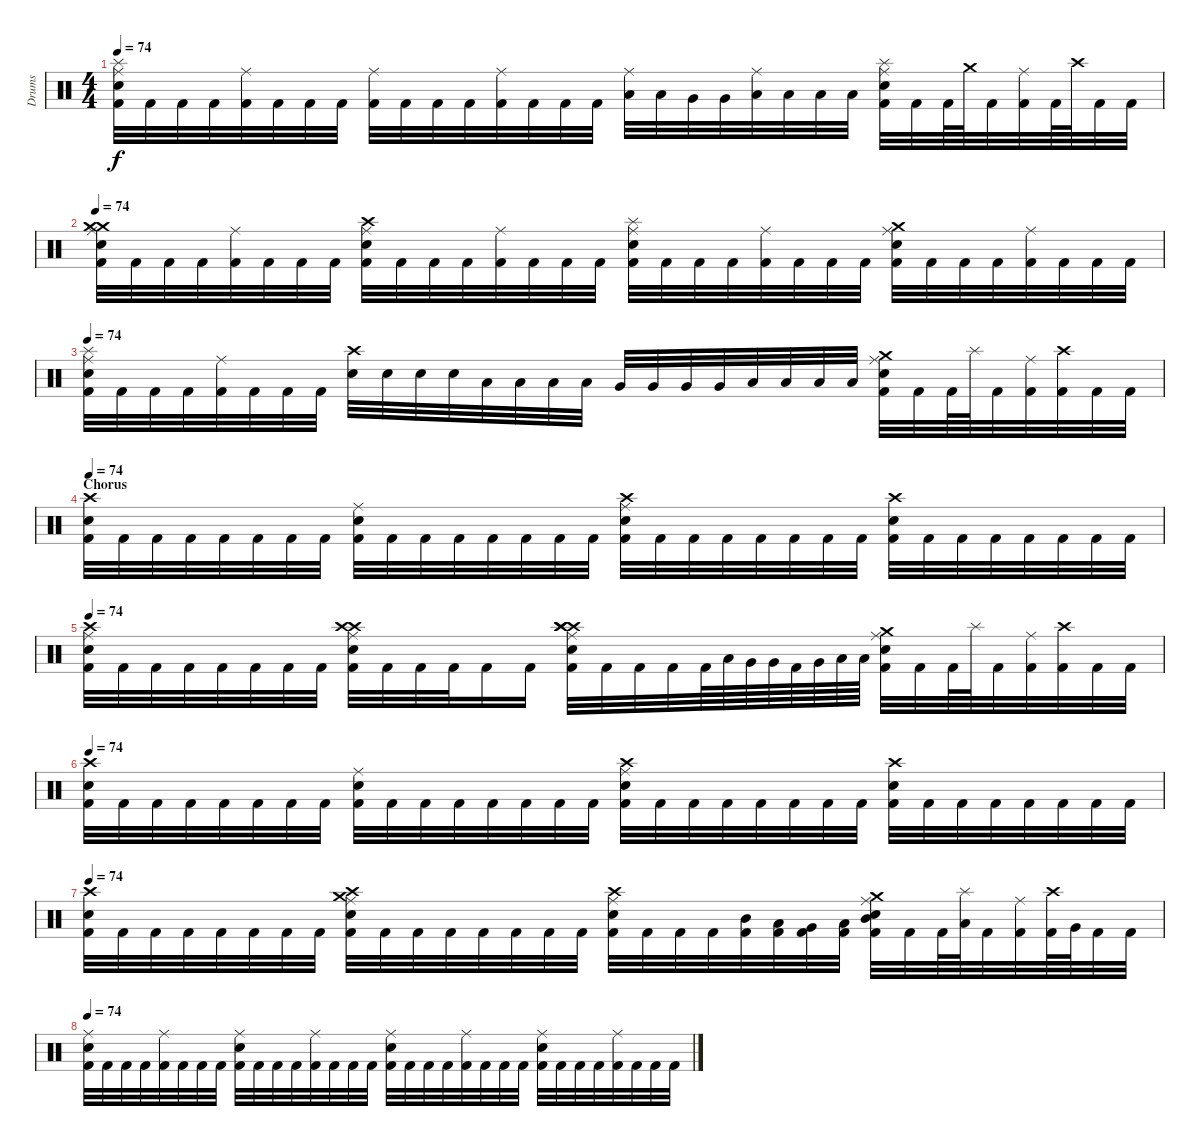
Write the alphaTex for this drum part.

\track ("Drums" "Drums") {instrument percussion}
\staff {score}
\articulation defaults
\ts (4 4)
\tempo 74
\clef neutral
\ks c
("Electric Snare (hit)" "Kick (hit) 2" "Ride (middle)" "Splash (hit)").32{dy f} "Kick (hit) 2".32 "Kick (hit) 2".32 "Kick (hit) 2".32 ("Ride (middle)" "Kick (hit) 2").32 "Kick (hit) 2".32 "Kick (hit) 2".32 "Kick (hit) 2".32 ("Ride (middle)" "Kick (hit) 2").32 "Kick (hit) 2".32 "Kick (hit) 2".32 "Kick (hit) 2".32 ("Ride (middle)" "Kick (hit) 2").32 "Kick (hit) 2".32 "Kick (hit) 2".32 "Kick (hit) 2".32 ("Ride (middle)" "Low Tom (hit)").32 "Low Tom (hit)".32 "Very Low Tom (hit)".32 "Very Low Tom (hit)".32 ("Ride (middle)" "Low Floor Tom (hit)").32 "Low Floor Tom (hit)".32 "Low Floor Tom (hit)".32 "Low Floor Tom (hit)".32 ("Ride (middle)" "Kick (hit) 2" "Electric Snare (hit)" "Splash (hit)").32 "Kick (hit) 2".32 "Kick (hit) 2".64 "Crash medium (hit)".64 "Kick (hit) 2".32 ("Ride (middle)" "Kick (hit) 2").32 "Kick (hit) 2".64 "Crash high (hit)".64 "Kick (hit) 2".32 "Kick (hit) 2".32 |
\tempo 74
("Crash medium (hit)" "Kick (hit) 2" "Ride (middle)" "Crash medium (hit)" "Electric Snare (hit)").32 "Kick (hit) 2".32 "Kick (hit) 2".32 "Kick (hit) 2".32 ("Ride (middle)" "Kick (hit) 2").32 "Kick (hit) 2".32 "Kick (hit) 2".32 "Kick (hit) 2".32 ("Ride (middle)" "Kick (hit) 2" "Electric Snare (hit)" "Crash high (hit)").32 "Kick (hit) 2".32 "Kick (hit) 2".32 "Kick (hit) 2".32 ("Ride (middle)" "Kick (hit) 2").32 "Kick (hit) 2".32 "Kick (hit) 2".32 "Kick (hit) 2".32 ("Ride (middle)" "Kick (hit) 2" "Electric Snare (hit)" "Splash (hit)").32 "Kick (hit) 2".32 "Kick (hit) 2".32 "Kick (hit) 2".32 ("Ride (middle)" "Kick (hit) 2").32 "Kick (hit) 2".32 "Kick (hit) 2".32 "Kick (hit) 2".32 ("Crash medium (hit)" "Ride (middle)" "Kick (hit) 2" "Electric Snare (hit)").32 "Kick (hit) 2".32 "Kick (hit) 2".32 "Kick (hit) 2".32 ("Ride (middle)" "Kick (hit) 2").32 "Kick (hit) 2".32 "Kick (hit) 2".32 "Kick (hit) 2".32 |
\tempo 74
("Splash (hit)" "Ride (middle)" "Kick (hit) 2" "Electric Snare (hit)").32 "Kick (hit) 2".32 "Kick (hit) 2".32 "Kick (hit) 2".32 ("Ride (middle)" "Kick (hit) 2").32 "Kick (hit) 2".32 "Kick (hit) 2".32 "Kick (hit) 2".32 ("Electric Snare (hit)" "Crash high (hit)").32 "Electric Snare (hit)".32 "Electric Snare (hit)".32 "Electric Snare (hit)".32 "Low Tom (hit)".32 "Low Tom (hit)".32 "Low Tom (hit)".32 "Low Tom (hit)".32 "Very Low Tom (hit)".32 "Very Low Tom (hit)".32 "Very Low Tom (hit)".32 "Very Low Tom (hit)".32 "Low Floor Tom (hit)".32 "Low Floor Tom (hit)".32 "Low Floor Tom (hit)".32 "Low Floor Tom (hit)".32 ("Crash medium (hit)" "Electric Snare (hit)" "Kick (hit) 2" "Ride (middle)").32 "Kick (hit) 2".32 "Kick (hit) 2".64 "Splash (hit)".64 "Kick (hit) 2".32 ("Ride (middle)" "Kick (hit) 2").32 ("Kick (hit) 2" "Crash high (hit)").32 "Kick (hit) 2".32 "Kick (hit) 2".32 |
\section ("" "Chorus")
\tempo 74
("Crash high (hit)" "Kick (hit) 2" "Electric Snare (hit)").32 "Kick (hit) 2".32 "Kick (hit) 2".32 "Kick (hit) 2".32 "Kick (hit) 2".32 "Kick (hit) 2".32 "Kick (hit) 2".32 "Kick (hit) 2".32 ("Electric Snare (hit)" "Kick (hit) 2" "Ride (middle)").32 "Kick (hit) 2".32 "Kick (hit) 2".32 "Kick (hit) 2".32 "Kick (hit) 2".32 "Kick (hit) 2".32 "Kick (hit) 2".32 "Kick (hit) 2".32 ("Electric Snare (hit)" "Kick (hit) 2" "Crash high (hit)" "Ride (middle)").32 "Kick (hit) 2".32 "Kick (hit) 2".32 "Kick (hit) 2".32 "Kick (hit) 2".32 "Kick (hit) 2".32 "Kick (hit) 2".32 "Kick (hit) 2".32 ("Electric Snare (hit)" "Kick (hit) 2" "Crash high (hit)").32 "Kick (hit) 2".32 "Kick (hit) 2".32 "Kick (hit) 2".32 "Kick (hit) 2".32 "Kick (hit) 2".32 "Kick (hit) 2".32 "Kick (hit) 2".32 |
\tempo 74
("Crash high (hit)" "Electric Snare (hit)" "Kick (hit) 2" "Ride (middle)").32 "Kick (hit) 2".32 "Kick (hit) 2".32 "Kick (hit) 2".32 "Kick (hit) 2".32 "Kick (hit) 2".32 "Kick (hit) 2".32 "Kick (hit) 2".32 ("Crash high (hit)" "Electric Snare (hit)" "Crash high (hit)" "Kick (hit) 2" "Ride (middle)").32 "Kick (hit) 2".32 "Kick (hit) 2".32 "Kick (hit) 2".32 "Kick (hit) 2".16 "Kick (hit) 2".16 ("Crash high (hit)" "Crash high (hit)" "Electric Snare (hit)" "Crash high (hit)" "Kick (hit) 2" "Ride (middle)").32 "Kick (hit) 2".32 "Kick (hit) 2".32 "Kick (hit) 2".32 "Kick (hit) 2".64 "Low Tom (hit)".64 "Very Low Tom (hit)".64 "Very Low Tom (hit)".64 "Kick (hit) 2".64 "Very Low Tom (hit)".64 "Low Floor Tom (hit)".64 "Low Floor Tom (hit)".64 ("Ride (middle)" "Kick (hit) 2" "Crash medium (hit)" "Electric Snare (hit)").32 "Kick (hit) 2".32 "Kick (hit) 2".64 "Splash (hit)".64 "Kick (hit) 2".32 ("Ride (middle)" "Kick (hit) 2").32 ("Kick (hit) 2" "Crash high (hit)").32 "Kick (hit) 2".32 "Kick (hit) 2".32 |
\tempo 74
("Electric Snare (hit)" "Kick (hit) 2" "Crash high (hit)").32 "Kick (hit) 2".32 "Kick (hit) 2".32 "Kick (hit) 2".32 "Kick (hit) 2".32 "Kick (hit) 2".32 "Kick (hit) 2".32 "Kick (hit) 2".32 ("Electric Snare (hit)" "Kick (hit) 2" "Ride (middle)").32 "Kick (hit) 2".32 "Kick (hit) 2".32 "Kick (hit) 2".32 "Kick (hit) 2".32 "Kick (hit) 2".32 "Kick (hit) 2".32 "Kick (hit) 2".32 ("Electric Snare (hit)" "Kick (hit) 2" "Crash high (hit)" "Ride (middle)").32 "Kick (hit) 2".32 "Kick (hit) 2".32 "Kick (hit) 2".32 "Kick (hit) 2".32 "Kick (hit) 2".32 "Kick (hit) 2".32 "Kick (hit) 2".32 ("Electric Snare (hit)" "Kick (hit) 2" "Crash high (hit)").32 "Kick (hit) 2".32 "Kick (hit) 2".32 "Kick (hit) 2".32 "Kick (hit) 2".32 "Kick (hit) 2".32 "Kick (hit) 2".32 "Kick (hit) 2".32 |
\tempo 74
("Electric Snare (hit)" "Kick (hit) 2" "Crash high (hit)").32 "Kick (hit) 2".32 "Kick (hit) 2".32 "Kick (hit) 2".32 "Kick (hit) 2".32 "Kick (hit) 2".32 "Kick (hit) 2".32 "Kick (hit) 2".32 ("Electric Snare (hit)" "Kick (hit) 2" "Ride (middle)" "Crash medium (hit)" "Crash high (hit)").32 "Kick (hit) 2".32 "Kick (hit) 2".32 "Kick (hit) 2".32 "Kick (hit) 2".32 "Kick (hit) 2".32 "Kick (hit) 2".32 "Kick (hit) 2".32 ("Electric Snare (hit)" "Kick (hit) 2" "Crash high (hit)" "Ride (middle)").32 "Kick (hit) 2".32 "Kick (hit) 2".32 "Kick (hit) 2".32 ("Kick (hit) 2" "Mid Tom (hit)").32 ("Kick (hit) 2" "Low Tom (hit)").32 ("Kick (hit) 2" "Very Low Tom (hit)").32 ("Kick (hit) 2" "Low Tom (hit)").32 ("Kick (hit) 2" "Electric Snare (hit)" "Crash medium (hit)" "Ride (middle)" "Mid Tom (hit)").32 "Kick (hit) 2".32 "Kick (hit) 2".64 ("Splash (hit)" "Low Tom (hit)").64 "Kick (hit) 2".32 ("Kick (hit) 2" "Ride (middle)").32 ("Kick (hit) 2" "Crash high (hit)").64 "Very Low Tom (hit)".64 "Kick (hit) 2".32 "Kick (hit) 2".32 |
\tempo 74
("Ride (middle)" "Kick (hit) 2" "Electric Snare (hit)").32 "Kick (hit) 2".32 "Kick (hit) 2".32 "Kick (hit) 2".32 ("Kick (hit) 2" "Ride (middle)").32 "Kick (hit) 2".32 "Kick (hit) 2".32 "Kick (hit) 2".32 ("Ride (middle)" "Kick (hit) 2" "Electric Snare (hit)").32 "Kick (hit) 2".32 "Kick (hit) 2".32 "Kick (hit) 2".32 ("Kick (hit) 2" "Ride (middle)").32 "Kick (hit) 2".32 "Kick (hit) 2".32 "Kick (hit) 2".32 ("Ride (middle)" "Kick (hit) 2" "Electric Snare (hit)").32 "Kick (hit) 2".32 "Kick (hit) 2".32 "Kick (hit) 2".32 ("Kick (hit) 2" "Ride (middle)").32 "Kick (hit) 2".32 "Kick (hit) 2".32 "Kick (hit) 2".32 ("Ride (middle)" "Kick (hit) 2" "Electric Snare (hit)").32 "Kick (hit) 2".32 "Kick (hit) 2".32 "Kick (hit) 2".32 ("Kick (hit) 2" "Ride (middle)").32 "Kick (hit) 2".32 "Kick (hit) 2".32 "Kick (hit) 2".32
